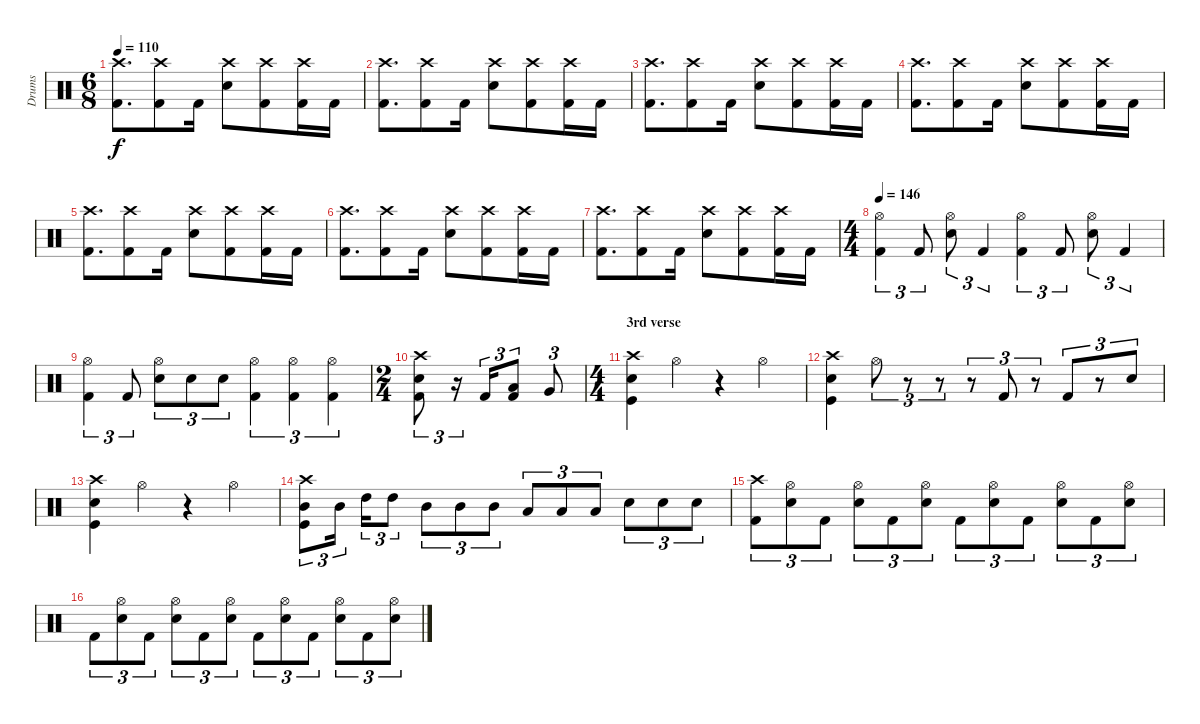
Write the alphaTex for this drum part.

\track ("Drums" "Drums") {instrument percussion}
\staff {score}
\articulation defaults
\ts (6 8)
\tempo 110
\clef neutral
\ks c
("Crash high (hit)" "Kick (hit) 2").8{d dy f} ("Crash high (hit)" "Kick (hit) 2").8 "Kick (hit) 2".16 ("Crash high (hit)" "Electric Snare (hit)").8 ("Crash high (hit)" "Kick (hit) 2").8 ("Crash high (hit)" "Kick (hit) 2").16 "Kick (hit) 2".16 |
("Crash high (hit)" "Kick (hit) 2").8{d} ("Crash high (hit)" "Kick (hit) 2").8 "Kick (hit) 2".16 ("Crash high (hit)" "Electric Snare (hit)").8 ("Crash high (hit)" "Kick (hit) 2").8 ("Crash high (hit)" "Kick (hit) 2").16 "Kick (hit) 2".16 |
("Crash high (hit)" "Kick (hit) 2").8{d} ("Crash high (hit)" "Kick (hit) 2").8 "Kick (hit) 2".16 ("Crash high (hit)" "Electric Snare (hit)").8 ("Crash high (hit)" "Kick (hit) 2").8 ("Crash high (hit)" "Kick (hit) 2").16 "Kick (hit) 2".16 |
("Crash high (hit)" "Kick (hit) 2").8{d} ("Crash high (hit)" "Kick (hit) 2").8 "Kick (hit) 2".16 ("Crash high (hit)" "Electric Snare (hit)").8 ("Crash high (hit)" "Kick (hit) 2").8 ("Crash high (hit)" "Kick (hit) 2").16 "Kick (hit) 2".16 |
("Crash high (hit)" "Kick (hit) 2").8{d} ("Crash high (hit)" "Kick (hit) 2").8 "Kick (hit) 2".16 ("Crash high (hit)" "Electric Snare (hit)").8 ("Crash high (hit)" "Kick (hit) 2").8 ("Crash high (hit)" "Kick (hit) 2").16 "Kick (hit) 2".16 |
("Crash high (hit)" "Kick (hit) 2").8{d} ("Crash high (hit)" "Kick (hit) 2").8 "Kick (hit) 2".16 ("Crash high (hit)" "Electric Snare (hit)").8 ("Crash high (hit)" "Kick (hit) 2").8 ("Crash high (hit)" "Kick (hit) 2").16 "Kick (hit) 2".16 |
("Crash high (hit)" "Kick (hit) 2").8{d} ("Crash high (hit)" "Kick (hit) 2").8 "Kick (hit) 2".16 ("Crash high (hit)" "Electric Snare (hit)").8 ("Crash high (hit)" "Kick (hit) 2").8 ("Crash high (hit)" "Kick (hit) 2").16 "Kick (hit) 2".16 |
\ts (4 4)
\tempo 146
("Hi-Hat (open)" "Kick (hit) 2").4{tu (3 2)} "Kick (hit) 2".8{tu (3 2)} ("Hi-Hat (open)" "Electric Snare (hit)").8{tu (3 2)} "Kick (hit) 2".4{tu (3 2)} ("Hi-Hat (open)" "Kick (hit) 2").4{tu (3 2)} "Kick (hit) 2".8{tu (3 2)} ("Hi-Hat (open)" "Electric Snare (hit)").8{tu (3 2)} "Kick (hit) 2".4{tu (3 2)} |
("Hi-Hat (open)" "Kick (hit) 2").4{tu (3 2)} "Kick (hit) 2".8{tu (3 2)} ("Hi-Hat (open)" "Electric Snare (hit)").8{tu (3 2)} "Electric Snare (hit)".8{tu (3 2)} "Electric Snare (hit)".8{tu (3 2)} ("Hi-Hat (open)" "Kick (hit) 2").4{tu (3 2)} ("Hi-Hat (open)" "Kick (hit) 2").4{tu (3 2)} ("Hi-Hat (open)" "Kick (hit) 2").4{tu (3 2)} |
\ts (2 4)
("Crash high (hit)" "Electric Snare (hit)" "Kick (hit) 2").8{tu (3 2)} r.16{tu (3 2)} "Kick (hit) 2".16{tu (3 2)} ("Low Floor Tom (hit)" "Kick (hit) 2").8{tu (3 2)} "Very Low Tom (hit)".8{tu (3 2)} |
\ts (4 4)
\section ("" "3rd verse")
("Crash high (hit)" "Electric Snare (hit)" "Kick (hit)").4 "Hi-Hat (open)".4 r.4 "Hi-Hat (open)".4 |
("Crash high (hit)" "Electric Snare (hit)" "Kick (hit)").4 "Hi-Hat (open)".8{tu (3 2)} r.8{tu (3 2)} r.8{tu (3 2)} r.8{tu (3 2)} "Kick (hit) 2".8{tu (3 2)} r.8{tu (3 2)} "Kick (hit) 2".8{tu (3 2)} r.8{tu (3 2)} "Electric Snare (hit)".8{tu (3 2)} |
("Crash high (hit)" "Electric Snare (hit)" "Kick (hit)").4 "Hi-Hat (open)".4 r.4 "Hi-Hat (open)".4 |
("Crash high (hit)" "Mid Tom (hit)" "Kick (hit)").8{tu (3 2)} "Mid Tom (hit)".16{tu (3 2)} "High Tom (hit)".16{tu (3 2)} "High Tom (hit)".8{tu (3 2)} "Mid Tom (hit)".8{tu (3 2)} "Mid Tom (hit)".8{tu (3 2)} "Mid Tom (hit)".8{tu (3 2)} "Low Tom (hit)".8{tu (3 2)} "Low Tom (hit)".8{tu (3 2)} "Low Tom (hit)".8{tu (3 2)} "Electric Snare (hit)".8{tu (3 2)} "Electric Snare (hit)".8{tu (3 2)} "Electric Snare (hit)".8{tu (3 2)} |
("Crash high (hit)" "Kick (hit) 2").8{tu (3 2)} ("Hi-Hat (open)" "Electric Snare (hit)").8{tu (3 2)} "Kick (hit) 2".8{tu (3 2)} ("Hi-Hat (open)" "Electric Snare (hit)").8{tu (3 2)} "Kick (hit) 2".8{tu (3 2)} ("Hi-Hat (open)" "Electric Snare (hit)").8{tu (3 2)} "Kick (hit) 2".8{tu (3 2)} ("Hi-Hat (open)" "Electric Snare (hit)").8{tu (3 2)} "Kick (hit) 2".8{tu (3 2)} ("Hi-Hat (open)" "Electric Snare (hit)").8{tu (3 2)} "Kick (hit) 2".8{tu (3 2)} ("Hi-Hat (open)" "Electric Snare (hit)").8{tu (3 2)} |
"Kick (hit) 2".8{tu (3 2)} ("Hi-Hat (open)" "Electric Snare (hit)").8{tu (3 2)} "Kick (hit) 2".8{tu (3 2)} ("Hi-Hat (open)" "Electric Snare (hit)").8{tu (3 2)} "Kick (hit) 2".8{tu (3 2)} ("Hi-Hat (open)" "Electric Snare (hit)").8{tu (3 2)} "Kick (hit) 2".8{tu (3 2)} ("Hi-Hat (open)" "Electric Snare (hit)").8{tu (3 2)} "Kick (hit) 2".8{tu (3 2)} ("Hi-Hat (open)" "Electric Snare (hit)").8{tu (3 2)} "Kick (hit) 2".8{tu (3 2)} ("Hi-Hat (open)" "Electric Snare (hit)").8{tu (3 2)}
